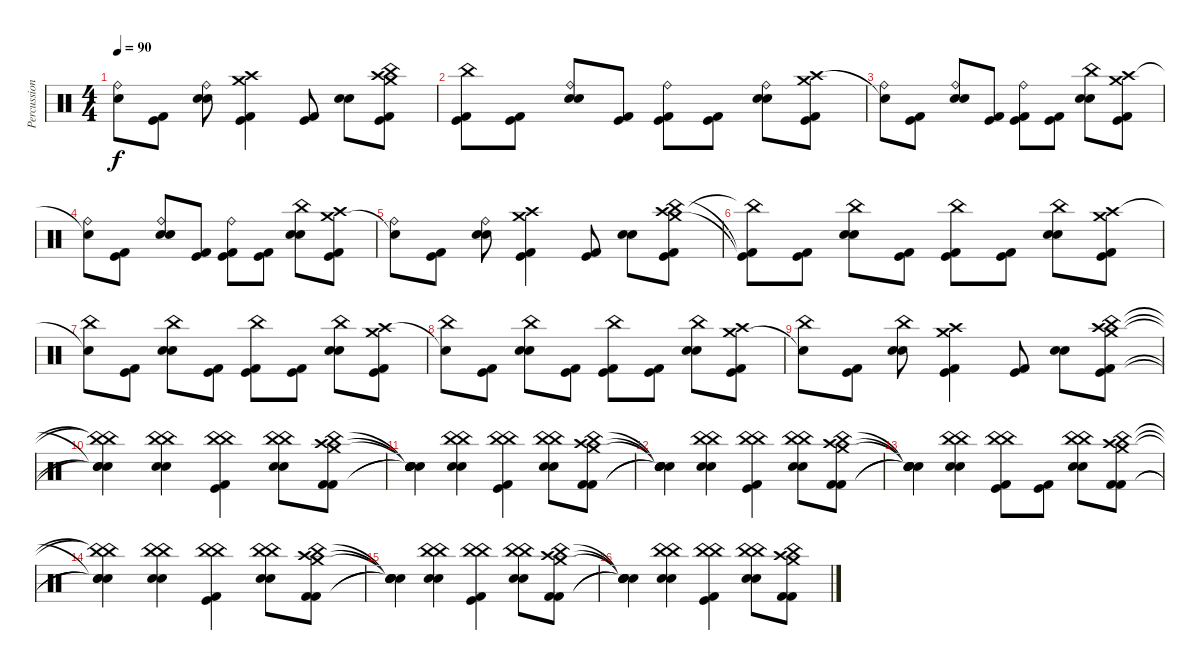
\track ("Percussion" "Percussion") {instrument percussion}
\staff {score}
\articulation defaults
\ts (4 4)
\tempo 90
\clef neutral
\ks c
("Snare (hit)"{t} "Ride (bell)").8{dy f} ("Kick (hit)" "Kick (hit) 2").8 ("Ride (bell)" "Electric Snare (hit)" "Snare (hit) 2").8 ("Crash medium (hit)" "Crash high (hit)" "Kick (hit)" "Kick (hit) 2").4 ("Kick (hit)" "Kick (hit) 2").8 ("Electric Snare (hit)" "Snare (hit) 2").8 ("Crash high (hit)" "Crash medium (hit)" "China (hit)" "Kick (hit)" "Kick (hit) 2").8 |
("China (hit)" "Kick (hit)" "Kick (hit) 2").8 ("Kick (hit)" "Kick (hit) 2").8 ("Ride (bell)" "Electric Snare (hit)" "Snare (hit) 2").8 ("Kick (hit)" "Kick (hit) 2").8 ("Ride (bell)" "Kick (hit)" "Kick (hit) 2").8 ("Kick (hit)" "Kick (hit) 2").8 ("Ride (bell)" "Electric Snare (hit)" "Snare (hit) 2").8 ("Crash medium (hit)" "Crash high (hit)" "Kick (hit)" "Kick (hit) 2").8 |
("Ride (bell)" "Snare (hit)"{t}).8 ("Kick (hit)" "Kick (hit) 2").8 ("Ride (bell)" "Electric Snare (hit)" "Snare (hit) 2").8 ("Kick (hit)" "Kick (hit) 2").8 ("Ride (bell)" "Kick (hit)" "Kick (hit) 2").8 ("Kick (hit)" "Kick (hit) 2").8 ("China (hit)" "Electric Snare (hit)" "Snare (hit) 2").8 ("Crash medium (hit)" "Crash high (hit)" "Kick (hit)" "Kick (hit) 2").8 |
("Ride (bell)" "Snare (hit)"{t}).8 ("Kick (hit)" "Kick (hit) 2").8 ("Ride (bell)" "Electric Snare (hit)" "Snare (hit) 2").8 ("Kick (hit)" "Kick (hit) 2").8 ("Ride (bell)" "Kick (hit)" "Kick (hit) 2").8 ("Kick (hit)" "Kick (hit) 2").8 ("China (hit)" "Electric Snare (hit)" "Snare (hit) 2").8 ("Crash medium (hit)" "Crash high (hit)" "Kick (hit)" "Kick (hit) 2").8 |
("Snare (hit)"{t} "Ride (bell)").8 ("Kick (hit)" "Kick (hit) 2").8 ("Ride (bell)" "Electric Snare (hit)" "Snare (hit) 2").8 ("Crash medium (hit)" "Crash high (hit)" "Kick (hit)" "Kick (hit) 2").4 ("Kick (hit)" "Kick (hit) 2").8 ("Electric Snare (hit)" "Snare (hit) 2").8 ("Crash high (hit)" "Crash medium (hit)" "China (hit)" "Kick (hit)" "Kick (hit) 2").8 |
("China (hit)"{t} "Kick (hit)"{t} "Kick (hit) 2"{t}).8 ("Kick (hit)" "Kick (hit) 2").8 ("China (hit)" "Electric Snare (hit)" "Snare (hit) 2").8 ("Kick (hit)" "Kick (hit) 2").8 ("China (hit)" "Kick (hit)" "Kick (hit) 2").8 ("Kick (hit)" "Kick (hit) 2").8 ("China (hit)" "Electric Snare (hit)" "Snare (hit) 2").8 ("Crash medium (hit)" "Crash high (hit)" "Kick (hit)" "Kick (hit) 2").8 |
("China (hit)" "Snare (hit)"{t}).8 ("Kick (hit)" "Kick (hit) 2").8 ("China (hit)" "Electric Snare (hit)" "Snare (hit) 2").8 ("Kick (hit)" "Kick (hit) 2").8 ("China (hit)" "Kick (hit)" "Kick (hit) 2").8 ("Kick (hit)" "Kick (hit) 2").8 ("China (hit)" "Electric Snare (hit)" "Snare (hit) 2").8 ("Crash medium (hit)" "Crash high (hit)" "Kick (hit)" "Kick (hit) 2").8 |
("China (hit)" "Snare (hit)"{t}).8 ("Kick (hit)" "Kick (hit) 2").8 ("China (hit)" "Electric Snare (hit)" "Snare (hit) 2").8 ("Kick (hit)" "Kick (hit) 2").8 ("China (hit)" "Kick (hit)" "Kick (hit) 2").8 ("Kick (hit)" "Kick (hit) 2").8 ("China (hit)" "Electric Snare (hit)" "Snare (hit) 2").8 ("Crash medium (hit)" "Crash high (hit)" "Kick (hit)" "Kick (hit) 2").8 |
("Snare (hit)"{t} "China (hit)").8 ("Kick (hit)" "Kick (hit) 2").8 ("China (hit)" "Electric Snare (hit)" "Snare (hit) 2").8 ("Crash medium (hit)" "Crash high (hit)" "Kick (hit)" "Kick (hit) 2").4 ("Kick (hit)" "Kick (hit) 2").8 ("Electric Snare (hit)" "Snare (hit) 2").8 ("Crash high (hit)" "Crash medium (hit)" "China (hit)" "Kick (hit)" "Kick (hit) 2").8 |
("China (hit)"{t} "China (hit)"{t} "Snare (hit)"{t} "Snare (hit)"{t} "Snare (hit)"{t}).4 ("China (hit)" "China (hit)" "Electric Snare (hit)" "Snare (hit) 2").4 ("China (hit)" "China (hit)" "Kick (hit)" "Kick (hit) 2").4 ("China (hit)" "China (hit)" "Electric Snare (hit)" "Snare (hit) 2").8 ("Crash high (hit)" "Crash medium (hit)" "China (hit)" "Kick (hit) 2" "Kick (hit) 2").8 |
("Snare (hit)"{t} "Snare (hit)"{t} "Snare (hit)"{t} "Snare (hit)"{t} "Snare (hit)"{t}).4 ("China (hit)" "China (hit)" "Electric Snare (hit)" "Snare (hit) 2").4 ("China (hit)" "China (hit)" "Kick (hit)" "Kick (hit) 2").4 ("China (hit)" "China (hit)" "Electric Snare (hit)" "Snare (hit) 2").8 ("Crash high (hit)" "Crash medium (hit)" "China (hit)" "Kick (hit) 2" "Kick (hit) 2").8 |
("Snare (hit)"{t} "Snare (hit)"{t} "Snare (hit)"{t} "Snare (hit)"{t} "Snare (hit)"{t}).4 ("China (hit)" "China (hit)" "Electric Snare (hit)" "Snare (hit) 2").4 ("China (hit)" "China (hit)" "Kick (hit)" "Kick (hit) 2").4 ("China (hit)" "China (hit)" "Electric Snare (hit)" "Snare (hit) 2").8 ("Crash high (hit)" "Crash medium (hit)" "China (hit)" "Kick (hit) 2" "Kick (hit) 2").8 |
("Snare (hit)"{t} "Snare (hit)"{t} "Snare (hit)"{t} "Snare (hit)"{t} "Snare (hit)"{t}).4 ("China (hit)" "China (hit)" "Electric Snare (hit)" "Snare (hit) 2").4 ("China (hit)" "China (hit)" "Kick (hit)" "Kick (hit) 2").8 ("Kick (hit)" "Kick (hit) 2").8 ("China (hit)" "China (hit)" "Electric Snare (hit)" "Snare (hit) 2").8 ("Crash high (hit)" "Crash medium (hit)" "China (hit)" "Kick (hit) 2" "Kick (hit) 2").8 |
("China (hit)"{t} "China (hit)"{t} "Snare (hit)"{t} "Snare (hit)"{t} "Snare (hit)"{t}).4 ("China (hit)" "China (hit)" "Electric Snare (hit)" "Snare (hit) 2").4 ("China (hit)" "China (hit)" "Kick (hit)" "Kick (hit) 2").4 ("China (hit)" "China (hit)" "Electric Snare (hit)" "Snare (hit) 2").8 ("Crash high (hit)" "Crash medium (hit)" "China (hit)" "Kick (hit) 2" "Kick (hit) 2").8 |
("Snare (hit)"{t} "Snare (hit)"{t} "Snare (hit)"{t} "Snare (hit)"{t} "Snare (hit)"{t}).4 ("China (hit)" "China (hit)" "Electric Snare (hit)" "Snare (hit) 2").4 ("China (hit)" "China (hit)" "Kick (hit)" "Kick (hit) 2").4 ("China (hit)" "China (hit)" "Electric Snare (hit)" "Snare (hit) 2").8 ("Crash high (hit)" "Crash medium (hit)" "China (hit)" "Kick (hit) 2" "Kick (hit) 2").8 |
("Snare (hit)"{t} "Snare (hit)"{t} "Snare (hit)"{t} "Snare (hit)"{t} "Snare (hit)"{t}).4 ("China (hit)" "China (hit)" "Electric Snare (hit)" "Snare (hit) 2").4 ("China (hit)" "China (hit)" "Kick (hit)" "Kick (hit) 2").4 ("China (hit)" "China (hit)" "Electric Snare (hit)" "Snare (hit) 2").8 ("Crash high (hit)" "Crash medium (hit)" "China (hit)" "Kick (hit) 2" "Kick (hit) 2").8
